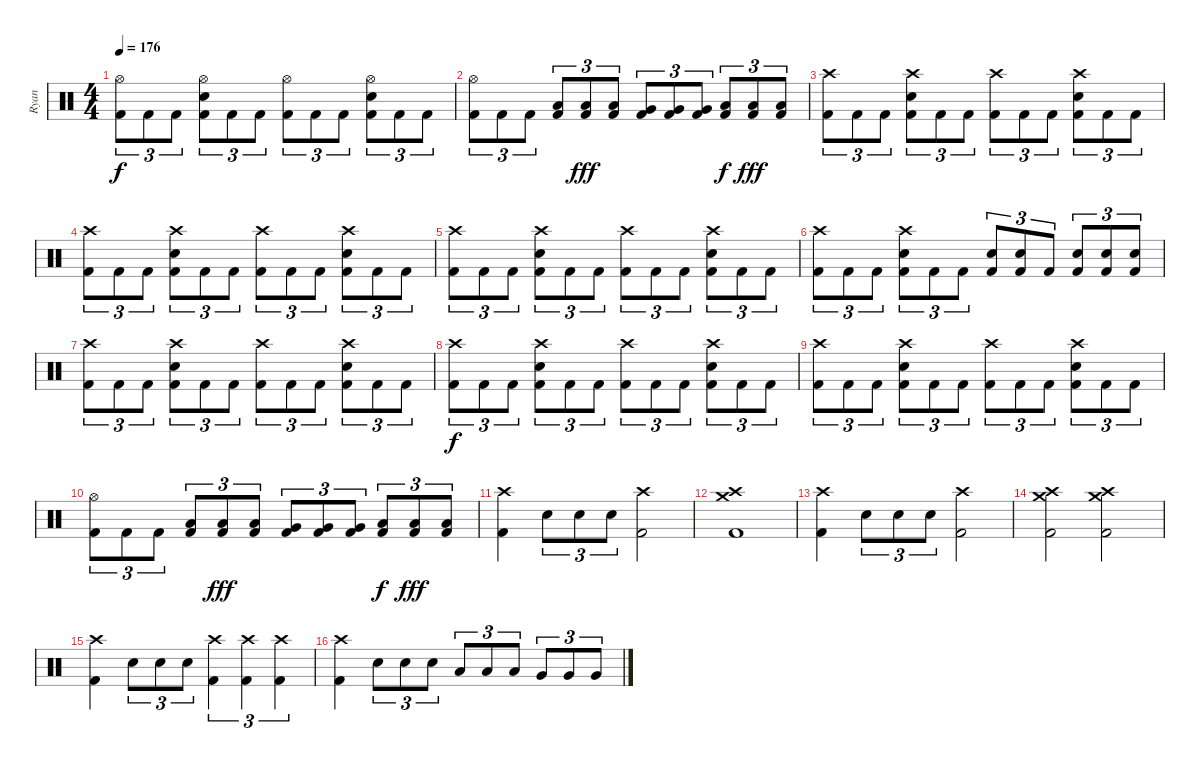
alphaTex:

\track ("Ryan" "Ryan") {instrument percussion}
\staff {score}
\articulation defaults
\ts (4 4)
\tempo 176
\clef neutral
\ks c
("Hi-Hat (open)" "Kick (hit) 2").8{tu (3 2) dy f} "Kick (hit) 2".8{tu (3 2)} "Kick (hit) 2".8{tu (3 2)} ("Hi-Hat (open)" "Electric Snare (hit)" "Kick (hit) 2").8{tu (3 2)} "Kick (hit) 2".8{tu (3 2)} "Kick (hit) 2".8{tu (3 2)} ("Hi-Hat (open)" "Kick (hit) 2").8{tu (3 2)} "Kick (hit) 2".8{tu (3 2)} "Kick (hit) 2".8{tu (3 2)} ("Hi-Hat (open)" "Electric Snare (hit)" "Kick (hit) 2").8{tu (3 2)} "Kick (hit) 2".8{tu (3 2)} "Kick (hit) 2".8{tu (3 2)} |
("Hi-Hat (open)" "Kick (hit) 2").8{tu (3 2)} "Kick (hit) 2".8{tu (3 2)} "Kick (hit) 2".8{tu (3 2)} ("Low Tom (hit)" "Kick (hit) 2").8{tu (3 2)} ("Low Tom (hit)" "Kick (hit) 2").8{tu (3 2) dy fff} ("Low Tom (hit)" "Kick (hit) 2").8{tu (3 2)} ("Very Low Tom (hit)" "Kick (hit) 2").8{tu (3 2)} ("Very Low Tom (hit)" "Kick (hit) 2").8{tu (3 2)} ("Very Low Tom (hit)" "Kick (hit) 2").8{tu (3 2)} ("Low Floor Tom (hit)" "Kick (hit) 2").8{tu (3 2) dy f} ("Low Floor Tom (hit)" "Kick (hit) 2").8{tu (3 2) dy fff} ("Low Floor Tom (hit)" "Kick (hit) 2").8{tu (3 2)} |
("Crash high (hit)" "Kick (hit) 2").8{tu (3 2)} "Kick (hit) 2".8{tu (3 2)} "Kick (hit) 2".8{tu (3 2)} ("Crash high (hit)" "Electric Snare (hit)" "Kick (hit) 2").8{tu (3 2)} "Kick (hit) 2".8{tu (3 2)} "Kick (hit) 2".8{tu (3 2)} ("Crash high (hit)" "Kick (hit) 2").8{tu (3 2)} "Kick (hit) 2".8{tu (3 2)} "Kick (hit) 2".8{tu (3 2)} ("Crash high (hit)" "Electric Snare (hit)" "Kick (hit) 2").8{tu (3 2)} "Kick (hit) 2".8{tu (3 2)} "Kick (hit) 2".8{tu (3 2)} |
("Crash high (hit)" "Kick (hit) 2").8{tu (3 2)} "Kick (hit) 2".8{tu (3 2)} "Kick (hit) 2".8{tu (3 2)} ("Crash high (hit)" "Electric Snare (hit)" "Kick (hit) 2").8{tu (3 2)} "Kick (hit) 2".8{tu (3 2)} "Kick (hit) 2".8{tu (3 2)} ("Crash high (hit)" "Kick (hit) 2").8{tu (3 2)} "Kick (hit) 2".8{tu (3 2)} "Kick (hit) 2".8{tu (3 2)} ("Crash high (hit)" "Electric Snare (hit)" "Kick (hit) 2").8{tu (3 2)} "Kick (hit) 2".8{tu (3 2)} "Kick (hit) 2".8{tu (3 2)} |
("Crash high (hit)" "Kick (hit) 2").8{tu (3 2)} "Kick (hit) 2".8{tu (3 2)} "Kick (hit) 2".8{tu (3 2)} ("Crash high (hit)" "Electric Snare (hit)" "Kick (hit) 2").8{tu (3 2)} "Kick (hit) 2".8{tu (3 2)} "Kick (hit) 2".8{tu (3 2)} ("Crash high (hit)" "Kick (hit) 2").8{tu (3 2)} "Kick (hit) 2".8{tu (3 2)} "Kick (hit) 2".8{tu (3 2)} ("Crash high (hit)" "Electric Snare (hit)" "Kick (hit) 2").8{tu (3 2)} "Kick (hit) 2".8{tu (3 2)} "Kick (hit) 2".8{tu (3 2)} |
("Crash high (hit)" "Kick (hit) 2").8{tu (3 2)} "Kick (hit) 2".8{tu (3 2)} "Kick (hit) 2".8{tu (3 2)} ("Crash high (hit)" "Electric Snare (hit)" "Kick (hit) 2").8{tu (3 2)} "Kick (hit) 2".8{tu (3 2)} "Kick (hit) 2".8{tu (3 2)} ("Electric Snare (hit)" "Kick (hit) 2").8{tu (3 2)} ("Electric Snare (hit)" "Kick (hit) 2").8{tu (3 2)} "Kick (hit) 2".8{tu (3 2)} ("Electric Snare (hit)" "Kick (hit) 2").8{tu (3 2)} ("Electric Snare (hit)" "Kick (hit) 2").8{tu (3 2)} ("Electric Snare (hit)" "Kick (hit) 2").8{tu (3 2)} |
("Crash high (hit)" "Kick (hit) 2").8{tu (3 2)} "Kick (hit) 2".8{tu (3 2)} "Kick (hit) 2".8{tu (3 2)} ("Crash high (hit)" "Electric Snare (hit)" "Kick (hit) 2").8{tu (3 2)} "Kick (hit) 2".8{tu (3 2)} "Kick (hit) 2".8{tu (3 2)} ("Crash high (hit)" "Kick (hit) 2").8{tu (3 2)} "Kick (hit) 2".8{tu (3 2)} "Kick (hit) 2".8{tu (3 2)} ("Crash high (hit)" "Electric Snare (hit)" "Kick (hit) 2").8{tu (3 2)} "Kick (hit) 2".8{tu (3 2)} "Kick (hit) 2".8{tu (3 2)} |
("Crash high (hit)" "Kick (hit) 2").8{tu (3 2) dy f} "Kick (hit) 2".8{tu (3 2)} "Kick (hit) 2".8{tu (3 2)} ("Crash high (hit)" "Electric Snare (hit)" "Kick (hit) 2").8{tu (3 2)} "Kick (hit) 2".8{tu (3 2)} "Kick (hit) 2".8{tu (3 2)} ("Crash high (hit)" "Kick (hit) 2").8{tu (3 2)} "Kick (hit) 2".8{tu (3 2)} "Kick (hit) 2".8{tu (3 2)} ("Crash high (hit)" "Electric Snare (hit)" "Kick (hit) 2").8{tu (3 2)} "Kick (hit) 2".8{tu (3 2)} "Kick (hit) 2".8{tu (3 2)} |
("Crash high (hit)" "Kick (hit) 2").8{tu (3 2)} "Kick (hit) 2".8{tu (3 2)} "Kick (hit) 2".8{tu (3 2)} ("Crash high (hit)" "Electric Snare (hit)" "Kick (hit) 2").8{tu (3 2)} "Kick (hit) 2".8{tu (3 2)} "Kick (hit) 2".8{tu (3 2)} ("Crash high (hit)" "Kick (hit) 2").8{tu (3 2)} "Kick (hit) 2".8{tu (3 2)} "Kick (hit) 2".8{tu (3 2)} ("Crash high (hit)" "Electric Snare (hit)" "Kick (hit) 2").8{tu (3 2)} "Kick (hit) 2".8{tu (3 2)} "Kick (hit) 2".8{tu (3 2)} |
("Hi-Hat (open)" "Kick (hit) 2").8{tu (3 2)} "Kick (hit) 2".8{tu (3 2)} "Kick (hit) 2".8{tu (3 2)} ("Low Tom (hit)" "Kick (hit) 2").8{tu (3 2)} ("Low Tom (hit)" "Kick (hit) 2").8{tu (3 2) dy fff} ("Low Tom (hit)" "Kick (hit) 2").8{tu (3 2)} ("Very Low Tom (hit)" "Kick (hit) 2").8{tu (3 2)} ("Very Low Tom (hit)" "Kick (hit) 2").8{tu (3 2)} ("Very Low Tom (hit)" "Kick (hit) 2").8{tu (3 2)} ("Low Floor Tom (hit)" "Kick (hit) 2").8{tu (3 2) dy f} ("Low Floor Tom (hit)" "Kick (hit) 2").8{tu (3 2) dy fff} ("Low Floor Tom (hit)" "Kick (hit) 2").8{tu (3 2)} |
("Crash high (hit)" "Kick (hit) 2").4 "Electric Snare (hit)".8{tu (3 2)} "Electric Snare (hit)".8{tu (3 2)} "Electric Snare (hit)".8{tu (3 2)} ("Crash high (hit)" "Kick (hit) 2").2 |
("Crash high (hit)" "Crash medium (hit)" "Kick (hit) 2").1 |
("Crash high (hit)" "Kick (hit) 2").4 "Electric Snare (hit)".8{tu (3 2)} "Electric Snare (hit)".8{tu (3 2)} "Electric Snare (hit)".8{tu (3 2)} ("Crash high (hit)" "Kick (hit) 2").2 |
("Crash high (hit)" "Crash medium (hit)" "Kick (hit) 2").2 ("Crash high (hit)" "Crash medium (hit)" "Kick (hit) 2").2 |
("Crash high (hit)" "Kick (hit) 2").4 "Electric Snare (hit)".8{tu (3 2)} "Electric Snare (hit)".8{tu (3 2)} "Electric Snare (hit)".8{tu (3 2)} ("Crash high (hit)" "Kick (hit) 2").4{tu (3 2)} ("Crash high (hit)" "Kick (hit) 2").4{tu (3 2)} ("Crash high (hit)" "Kick (hit) 2").4{tu (3 2)} |
("Crash high (hit)" "Kick (hit) 2").4 "Electric Snare (hit)".8{tu (3 2)} "Electric Snare (hit)".8{tu (3 2)} "Electric Snare (hit)".8{tu (3 2)} "Low Tom (hit)".8{tu (3 2)} "Low Tom (hit)".8{tu (3 2)} "Low Tom (hit)".8{tu (3 2)} "Very Low Tom (hit)".8{tu (3 2)} "Very Low Tom (hit)".8{tu (3 2)} "Very Low Tom (hit)".8{tu (3 2)}
